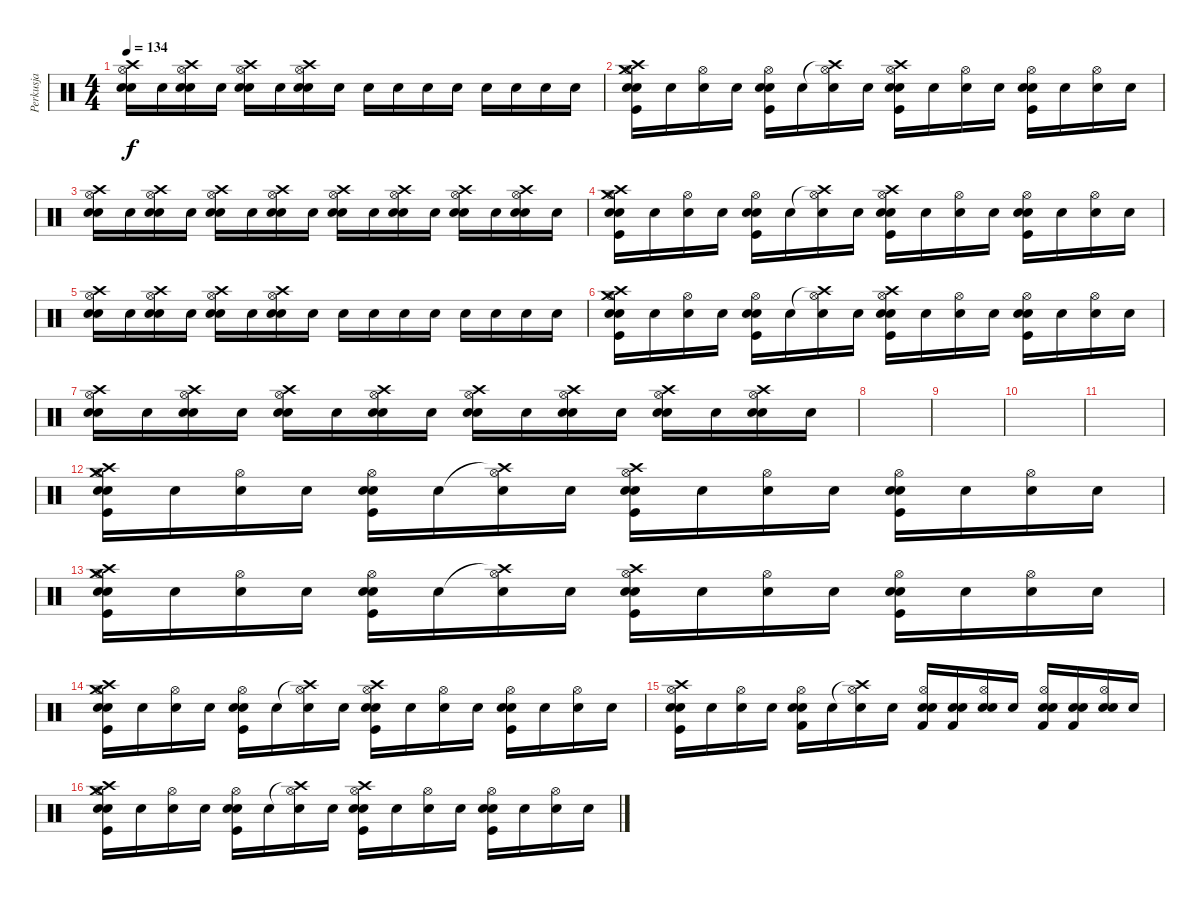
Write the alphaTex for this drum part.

\track ("Perkusja" "Perkusja") {instrument percussion}
\staff {score}
\articulation defaults
\ts (4 4)
\tempo 134
\clef neutral
\ks c
("Crash high (hit)" "Electric Snare (hit)" "Hi-Hat (open)" "Snare (hit)").16{dy f} "Snare (hit)".16 ("Crash high (hit)" "Electric Snare (hit)" "Hi-Hat (open)" "Snare (hit)").16 "Snare (hit)".16 ("Crash high (hit)" "Electric Snare (hit)" "Hi-Hat (open)" "Snare (hit)").16 "Snare (hit)".16 ("Crash high (hit)" "Electric Snare (hit)" "Hi-Hat (open)" "Snare (hit)").16 "Snare (hit)".16 "Snare (hit)".16 "Snare (hit)".16 "Snare (hit)".16 "Snare (hit)".16 "Snare (hit)".16 "Snare (hit)".16 "Snare (hit)".16 "Snare (hit)".16 |
("Crash high (hit)" "Crash medium (hit)" "Electric Snare (hit)" "Kick (hit)" "Hi-Hat (open)" "Snare (hit)").16 "Snare (hit)".16 ("Hi-Hat (open)" "Snare (hit)").16 "Snare (hit)".16 ("Electric Snare (hit)" "Kick (hit)" "Hi-Hat (open)" "Snare (hit)").16 "Snare (hit)".16 ("Crash high (hit)"{t} "Hi-Hat (open)" "Snare (hit)").16 "Snare (hit)".16 ("Crash high (hit)" "Electric Snare (hit)" "Kick (hit)" "Hi-Hat (open)" "Snare (hit)").16 "Snare (hit)".16 ("Hi-Hat (open)" "Snare (hit)").16 "Snare (hit)".16 ("Electric Snare (hit)" "Kick (hit)" "Hi-Hat (open)" "Snare (hit)").16 "Snare (hit)".16 ("Hi-Hat (open)" "Snare (hit)").16 "Snare (hit)".16 |
("Crash high (hit)" "Electric Snare (hit)" "Hi-Hat (open)" "Snare (hit)").16 "Snare (hit)".16 ("Crash high (hit)" "Electric Snare (hit)" "Hi-Hat (open)" "Snare (hit)").16 "Snare (hit)".16 ("Crash high (hit)" "Electric Snare (hit)" "Hi-Hat (open)" "Snare (hit)").16 "Snare (hit)".16 ("Crash high (hit)" "Electric Snare (hit)" "Hi-Hat (open)" "Snare (hit)").16 "Snare (hit)".16 ("Crash high (hit)" "Electric Snare (hit)" "Hi-Hat (open)" "Snare (hit)").16 "Snare (hit)".16 ("Crash high (hit)" "Electric Snare (hit)" "Hi-Hat (open)" "Snare (hit)").16 "Snare (hit)".16 ("Crash high (hit)" "Electric Snare (hit)" "Hi-Hat (open)" "Snare (hit)").16 "Snare (hit)".16 ("Crash high (hit)" "Electric Snare (hit)" "Hi-Hat (open)" "Snare (hit)").16 "Snare (hit)".16 |
("Crash high (hit)" "Crash medium (hit)" "Electric Snare (hit)" "Kick (hit)" "Hi-Hat (open)" "Snare (hit)").16 "Snare (hit)".16 ("Hi-Hat (open)" "Snare (hit)").16 "Snare (hit)".16 ("Electric Snare (hit)" "Kick (hit)" "Hi-Hat (open)" "Snare (hit)").16 "Snare (hit)".16 ("Crash high (hit)"{t} "Hi-Hat (open)" "Snare (hit)").16 "Snare (hit)".16 ("Crash high (hit)" "Electric Snare (hit)" "Kick (hit)" "Hi-Hat (open)" "Snare (hit)").16 "Snare (hit)".16 ("Hi-Hat (open)" "Snare (hit)").16 "Snare (hit)".16 ("Electric Snare (hit)" "Kick (hit)" "Hi-Hat (open)" "Snare (hit)").16 "Snare (hit)".16 ("Hi-Hat (open)" "Snare (hit)").16 "Snare (hit)".16 |
("Crash high (hit)" "Electric Snare (hit)" "Hi-Hat (open)" "Snare (hit)").16 "Snare (hit)".16 ("Crash high (hit)" "Electric Snare (hit)" "Hi-Hat (open)" "Snare (hit)").16 "Snare (hit)".16 ("Crash high (hit)" "Electric Snare (hit)" "Hi-Hat (open)" "Snare (hit)").16 "Snare (hit)".16 ("Crash high (hit)" "Electric Snare (hit)" "Hi-Hat (open)" "Snare (hit)").16 "Snare (hit)".16 "Snare (hit)".16 "Snare (hit)".16 "Snare (hit)".16 "Snare (hit)".16 "Snare (hit)".16 "Snare (hit)".16 "Snare (hit)".16 "Snare (hit)".16 |
("Crash high (hit)" "Crash medium (hit)" "Electric Snare (hit)" "Kick (hit)" "Hi-Hat (open)" "Snare (hit)").16 "Snare (hit)".16 ("Hi-Hat (open)" "Snare (hit)").16 "Snare (hit)".16 ("Electric Snare (hit)" "Kick (hit)" "Hi-Hat (open)" "Snare (hit)").16 "Snare (hit)".16 ("Crash high (hit)"{t} "Hi-Hat (open)" "Snare (hit)").16 "Snare (hit)".16 ("Crash high (hit)" "Electric Snare (hit)" "Kick (hit)" "Hi-Hat (open)" "Snare (hit)").16 "Snare (hit)".16 ("Hi-Hat (open)" "Snare (hit)").16 "Snare (hit)".16 ("Electric Snare (hit)" "Kick (hit)" "Hi-Hat (open)" "Snare (hit)").16 "Snare (hit)".16 ("Hi-Hat (open)" "Snare (hit)").16 "Snare (hit)".16 |
("Crash high (hit)" "Electric Snare (hit)" "Hi-Hat (open)" "Snare (hit)").16 "Snare (hit)".16 ("Crash high (hit)" "Electric Snare (hit)" "Hi-Hat (open)" "Snare (hit)").16 "Snare (hit)".16 ("Crash high (hit)" "Electric Snare (hit)" "Hi-Hat (open)" "Snare (hit)").16 "Snare (hit)".16 ("Crash high (hit)" "Electric Snare (hit)" "Hi-Hat (open)" "Snare (hit)").16 "Snare (hit)".16 ("Crash high (hit)" "Electric Snare (hit)" "Hi-Hat (open)" "Snare (hit)").16 "Snare (hit)".16 ("Crash high (hit)" "Electric Snare (hit)" "Hi-Hat (open)" "Snare (hit)").16 "Snare (hit)".16 ("Crash high (hit)" "Electric Snare (hit)" "Hi-Hat (open)" "Snare (hit)").16 "Snare (hit)".16 ("Crash high (hit)" "Electric Snare (hit)" "Hi-Hat (open)" "Snare (hit)").16 "Snare (hit)".16 |
|
|
|
|
("Crash high (hit)" "Crash medium (hit)" "Electric Snare (hit)" "Kick (hit)" "Hi-Hat (open)" "Snare (hit)").16 "Snare (hit)".16 ("Hi-Hat (open)" "Snare (hit)").16 "Snare (hit)".16 ("Electric Snare (hit)" "Kick (hit)" "Hi-Hat (open)" "Snare (hit)").16 "Snare (hit)".16 ("Crash high (hit)"{t} "Hi-Hat (open)" "Snare (hit)").16 "Snare (hit)".16 ("Crash high (hit)" "Electric Snare (hit)" "Kick (hit)" "Hi-Hat (open)" "Snare (hit)").16 "Snare (hit)".16 ("Hi-Hat (open)" "Snare (hit)").16 "Snare (hit)".16 ("Electric Snare (hit)" "Kick (hit)" "Hi-Hat (open)" "Snare (hit)").16 "Snare (hit)".16 ("Hi-Hat (open)" "Snare (hit)").16 "Snare (hit)".16 |
("Crash high (hit)" "Crash medium (hit)" "Electric Snare (hit)" "Kick (hit)" "Hi-Hat (open)" "Snare (hit)").16 "Snare (hit)".16 ("Hi-Hat (open)" "Snare (hit)").16 "Snare (hit)".16 ("Electric Snare (hit)" "Kick (hit)" "Hi-Hat (open)" "Snare (hit)").16 "Snare (hit)".16 ("Crash high (hit)"{t} "Hi-Hat (open)" "Snare (hit)").16 "Snare (hit)".16 ("Crash high (hit)" "Electric Snare (hit)" "Kick (hit)" "Hi-Hat (open)" "Snare (hit)").16 "Snare (hit)".16 ("Hi-Hat (open)" "Snare (hit)").16 "Snare (hit)".16 ("Electric Snare (hit)" "Kick (hit)" "Hi-Hat (open)" "Snare (hit)").16 "Snare (hit)".16 ("Hi-Hat (open)" "Snare (hit)").16 "Snare (hit)".16 |
("Crash high (hit)" "Crash medium (hit)" "Electric Snare (hit)" "Kick (hit)" "Hi-Hat (open)" "Snare (hit)").16 "Snare (hit)".16 ("Hi-Hat (open)" "Snare (hit)").16 "Snare (hit)".16 ("Electric Snare (hit)" "Kick (hit)" "Hi-Hat (open)" "Snare (hit)").16 "Snare (hit)".16 ("Crash high (hit)"{t} "Hi-Hat (open)" "Snare (hit)").16 "Snare (hit)".16 ("Crash high (hit)" "Electric Snare (hit)" "Kick (hit)" "Hi-Hat (open)" "Snare (hit)").16 "Snare (hit)".16 ("Hi-Hat (open)" "Snare (hit)").16 "Snare (hit)".16 ("Electric Snare (hit)" "Kick (hit)" "Hi-Hat (open)" "Snare (hit)").16 "Snare (hit)".16 ("Hi-Hat (open)" "Snare (hit)").16 "Snare (hit)".16 |
("Crash high (hit)" "Electric Snare (hit)" "Kick (hit)" "Hi-Hat (open)" "Snare (hit)").16 "Snare (hit)".16 ("Hi-Hat (open)" "Snare (hit)").16 "Snare (hit)".16 ("Electric Snare (hit)" "Kick (hit) 2" "Hi-Hat (open)" "Snare (hit)").16 "Snare (hit)".16 ("Crash high (hit)"{t} "Hi-Hat (open)" "Snare (hit)").16 "Snare (hit)".16 ("Electric Snare (hit)" "Kick (hit) 2" "Hi-Hat (open)" "Snare (hit)").16 ("Electric Snare (hit)" "Kick (hit) 2" "Snare (hit)").16 ("Electric Snare (hit)" "Hi-Hat (open)" "Snare (hit)").16 "Snare (hit)".16 ("Electric Snare (hit)" "Kick (hit) 2" "Hi-Hat (open)" "Snare (hit)").16 ("Electric Snare (hit)" "Kick (hit) 2" "Snare (hit)").16 ("Electric Snare (hit)" "Hi-Hat (open)" "Snare (hit)").16 "Snare (hit)".16 |
("Crash high (hit)" "Crash medium (hit)" "Electric Snare (hit)" "Kick (hit)" "Hi-Hat (open)" "Snare (hit)").16 "Snare (hit)".16 ("Hi-Hat (open)" "Snare (hit)").16 "Snare (hit)".16 ("Electric Snare (hit)" "Kick (hit)" "Hi-Hat (open)" "Snare (hit)").16 "Snare (hit)".16 ("Crash high (hit)"{t} "Hi-Hat (open)" "Snare (hit)").16 "Snare (hit)".16 ("Crash high (hit)" "Electric Snare (hit)" "Kick (hit)" "Hi-Hat (open)" "Snare (hit)").16 "Snare (hit)".16 ("Hi-Hat (open)" "Snare (hit)").16 "Snare (hit)".16 ("Electric Snare (hit)" "Kick (hit)" "Hi-Hat (open)" "Snare (hit)").16 "Snare (hit)".16 ("Hi-Hat (open)" "Snare (hit)").16 "Snare (hit)".16
